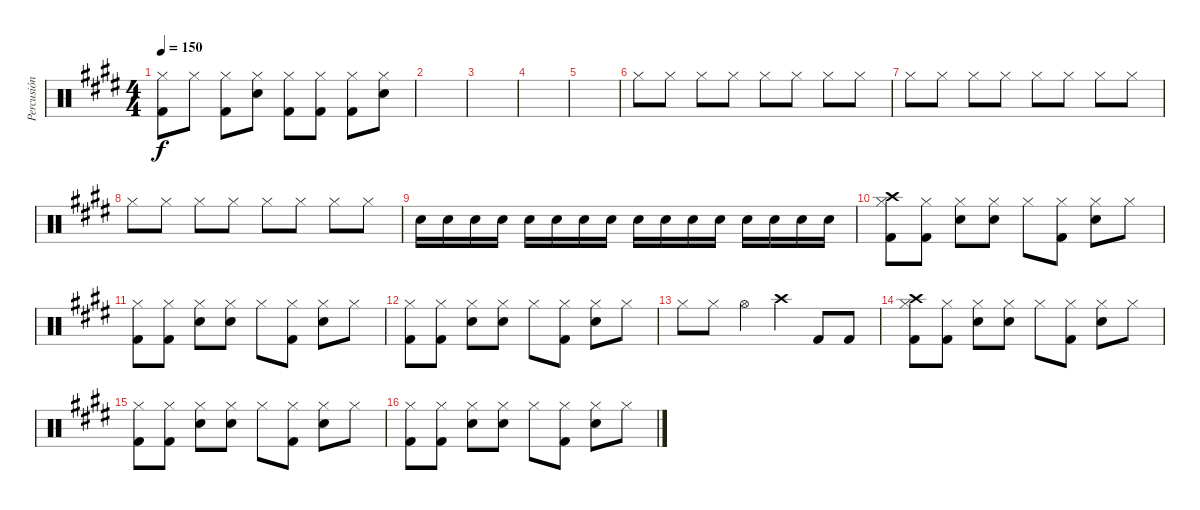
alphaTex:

\track ("Percusión" "Percusión") {instrument percussion}
\staff {score}
\articulation defaults
\ts (4 4)
\tempo 150
\clef neutral
\ks e
("Kick (hit) 2" "Hi-Hat (closed)").8{dy f} "Hi-Hat (closed)".8 ("Kick (hit) 2" "Hi-Hat (closed)").8 ("Snare (hit) 2" "Hi-Hat (closed)").8 ("Kick (hit) 2" "Hi-Hat (closed)").8 ("Kick (hit) 2" "Hi-Hat (closed)").8 ("Kick (hit) 2" "Hi-Hat (closed)").8 ("Snare (hit) 2" "Hi-Hat (closed)").8 |
|
|
|
|
"Hi-Hat (closed)".8 "Hi-Hat (closed)".8 "Hi-Hat (closed)".8 "Hi-Hat (closed)".8 "Hi-Hat (closed)".8 "Hi-Hat (closed)".8 "Hi-Hat (closed)".8 "Hi-Hat (closed)".8 |
"Hi-Hat (closed)".8 "Hi-Hat (closed)".8 "Hi-Hat (closed)".8 "Hi-Hat (closed)".8 "Hi-Hat (closed)".8 "Hi-Hat (closed)".8 "Hi-Hat (closed)".8 "Hi-Hat (closed)".8 |
"Hi-Hat (closed)".8 "Hi-Hat (closed)".8 "Hi-Hat (closed)".8 "Hi-Hat (closed)".8 "Hi-Hat (closed)".8 "Hi-Hat (closed)".8 "Hi-Hat (closed)".8 "Hi-Hat (closed)".8 |
"Snare (hit) 2".16 "Snare (hit) 2".16 "Snare (hit) 2".16 "Snare (hit) 2".16 "Snare (hit) 2".16 "Snare (hit) 2".16 "Snare (hit) 2".16 "Snare (hit) 2".16 "Snare (hit) 2".16 "Snare (hit) 2".16 "Snare (hit) 2".16 "Snare (hit) 2".16 "Snare (hit) 2".16 "Snare (hit) 2".16 "Snare (hit) 2".16 "Snare (hit) 2".16 |
("Kick (hit) 2" "Hi-Hat (closed)" "Crash high (hit)").8 ("Kick (hit) 2" "Hi-Hat (closed)").8 ("Snare (hit) 2" "Hi-Hat (closed)").8 ("Snare (hit) 2" "Hi-Hat (closed)").8 "Hi-Hat (closed)".8 ("Kick (hit) 2" "Hi-Hat (closed)").8 ("Snare (hit) 2" "Hi-Hat (closed)").8 "Hi-Hat (closed)".8 |
("Kick (hit) 2" "Hi-Hat (closed)").8 ("Kick (hit) 2" "Hi-Hat (closed)").8 ("Snare (hit) 2" "Hi-Hat (closed)").8 ("Snare (hit) 2" "Hi-Hat (closed)").8 "Hi-Hat (closed)".8 ("Kick (hit) 2" "Hi-Hat (closed)").8 ("Snare (hit) 2" "Hi-Hat (closed)").8 "Hi-Hat (closed)".8 |
("Kick (hit) 2" "Hi-Hat (closed)").8 ("Kick (hit) 2" "Hi-Hat (closed)").8 ("Snare (hit) 2" "Hi-Hat (closed)").8 ("Snare (hit) 2" "Hi-Hat (closed)").8 "Hi-Hat (closed)".8 ("Kick (hit) 2" "Hi-Hat (closed)").8 ("Snare (hit) 2" "Hi-Hat (closed)").8 "Hi-Hat (closed)".8 |
"Hi-Hat (closed)".8 "Hi-Hat (closed)".8 "Hi-Hat (open)".4 "Crash high (hit)".4 "Kick (hit) 2".8 "Kick (hit) 2".8 |
("Kick (hit) 2" "Hi-Hat (closed)" "Crash high (hit)").8 ("Kick (hit) 2" "Hi-Hat (closed)").8 ("Snare (hit) 2" "Hi-Hat (closed)").8 ("Snare (hit) 2" "Hi-Hat (closed)").8 "Hi-Hat (closed)".8 ("Kick (hit) 2" "Hi-Hat (closed)").8 ("Snare (hit) 2" "Hi-Hat (closed)").8 "Hi-Hat (closed)".8 |
("Kick (hit) 2" "Hi-Hat (closed)").8 ("Kick (hit) 2" "Hi-Hat (closed)").8 ("Snare (hit) 2" "Hi-Hat (closed)").8 ("Snare (hit) 2" "Hi-Hat (closed)").8 "Hi-Hat (closed)".8 ("Kick (hit) 2" "Hi-Hat (closed)").8 ("Snare (hit) 2" "Hi-Hat (closed)").8 "Hi-Hat (closed)".8 |
("Kick (hit) 2" "Hi-Hat (closed)").8 ("Kick (hit) 2" "Hi-Hat (closed)").8 ("Snare (hit) 2" "Hi-Hat (closed)").8 ("Snare (hit) 2" "Hi-Hat (closed)").8 "Hi-Hat (closed)".8 ("Kick (hit) 2" "Hi-Hat (closed)").8 ("Snare (hit) 2" "Hi-Hat (closed)").8 "Hi-Hat (closed)".8
